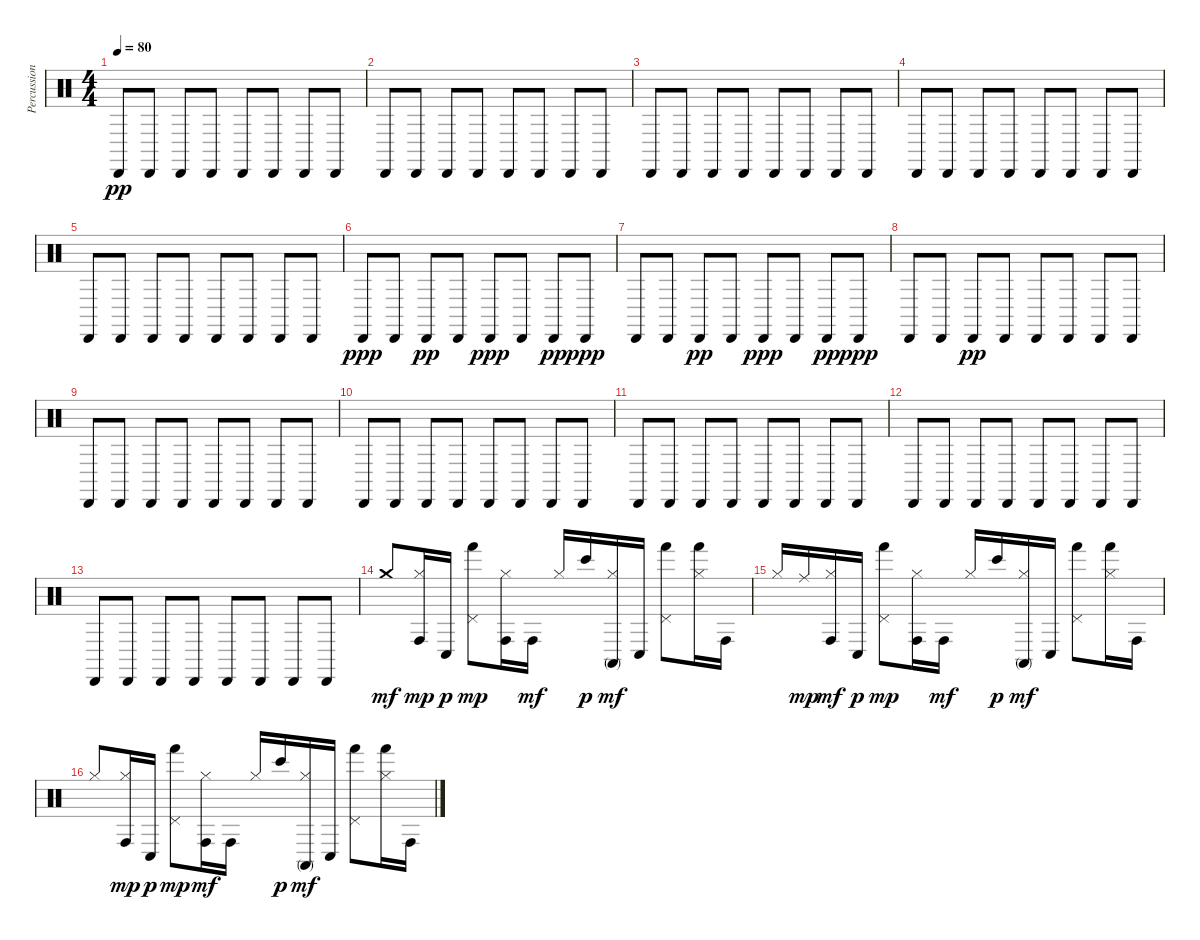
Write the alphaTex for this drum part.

\track ("Percussion" "Percussion") {instrument percussion}
\staff {score}
\articulation defaults
\ts (4 4)
\tempo 80
\clef neutral
\ks c "Cabasa (hit)".8{dy pp} "Cabasa (hit)".8 "Cabasa (hit)".8 "Cabasa (hit)".8 "Cabasa (hit)".8 "Cabasa (hit)".8 "Cabasa (hit)".8 "Cabasa (hit)".8
|
"Cabasa (hit)".8 "Cabasa (hit)".8 "Cabasa (hit)".8 "Cabasa (hit)".8 "Cabasa (hit)".8 "Cabasa (hit)".8 "Cabasa (hit)".8 "Cabasa (hit)".8 |
"Cabasa (hit)".8 "Cabasa (hit)".8 "Cabasa (hit)".8 "Cabasa (hit)".8 "Cabasa (hit)".8 "Cabasa (hit)".8 "Cabasa (hit)".8 "Cabasa (hit)".8 |
"Cabasa (hit)".8 "Cabasa (hit)".8 "Cabasa (hit)".8 "Cabasa (hit)".8 "Cabasa (hit)".8 "Cabasa (hit)".8 "Cabasa (hit)".8 "Cabasa (hit)".8 |
"Cabasa (hit)".8 "Cabasa (hit)".8 "Cabasa (hit)".8 "Cabasa (hit)".8 "Cabasa (hit)".8 "Cabasa (hit)".8 "Cabasa (hit)".8 "Cabasa (hit)".8 |
"Cabasa (hit)".8{dy ppp} "Cabasa (hit)".8 "Cabasa (hit)".8{dy pp} "Cabasa (hit)".8 "Cabasa (hit)".8{dy ppp} "Cabasa (hit)".8 "Cabasa (hit)".8{dy pp} "Cabasa (hit)".8{dy ppp} |
"Cabasa (hit)".8 "Cabasa (hit)".8 "Cabasa (hit)".8{dy pp} "Cabasa (hit)".8 "Cabasa (hit)".8{dy ppp} "Cabasa (hit)".8 "Cabasa (hit)".8{dy pp} "Cabasa (hit)".8{dy ppp} |
"Cabasa (hit)".8 "Cabasa (hit)".8 "Cabasa (hit)".8{dy pp} "Cabasa (hit)".8 "Cabasa (hit)".8 "Cabasa (hit)".8 "Cabasa (hit)".8 "Cabasa (hit)".8 |
"Cabasa (hit)".8 "Cabasa (hit)".8 "Cabasa (hit)".8 "Cabasa (hit)".8 "Cabasa (hit)".8 "Cabasa (hit)".8 "Cabasa (hit)".8 "Cabasa (hit)".8 |
"Cabasa (hit)".8 "Cabasa (hit)".8 "Cabasa (hit)".8 "Cabasa (hit)".8 "Cabasa (hit)".8 "Cabasa (hit)".8 "Cabasa (hit)".8 "Cabasa (hit)".8 |
"Cabasa (hit)".8 "Cabasa (hit)".8 "Cabasa (hit)".8 "Cabasa (hit)".8 "Cabasa (hit)".8 "Cabasa (hit)".8 "Cabasa (hit)".8 "Cabasa (hit)".8 |
"Cabasa (hit)".8 "Cabasa (hit)".8 "Cabasa (hit)".8 "Cabasa (hit)".8 "Cabasa (hit)".8 "Cabasa (hit)".8 "Cabasa (hit)".8 "Cabasa (hit)".8 |
"Cabasa (hit)".8 "Cabasa (hit)".8 "Cabasa (hit)".8 "Cabasa (hit)".8 "Cabasa (hit)".8 "Cabasa (hit)".8 "Cabasa (hit)".8 "Cabasa (hit)".8 |
"Crash medium (hit)".8{dy mf} ("Conga high (hit)" "Hi-Hat (closed)").16{dy mp} "Conga low (hit)".16{dy p} ("Hand (hit)" "Pedal Hi-Hat (hit)").8{dy mp} ("Conga high (hit)" "Hi-Hat (closed)").16 "Conga high (hit)".16{dy mf} "Hi-Hat (closed)".16 "Bongo High (hit)".16{dy p} ("Hi-Hat (closed)" "Conga high (mute)").16{dy mf} "Conga low (hit)".16 ("Pedal Hi-Hat (hit)" "Hand (hit)").8 ("Hand (hit)" "Hi-Hat (closed)").16 "Conga high (hit)".16 |
"Hi-Hat (closed)".16 "Ride (middle)".16{dy mp} ("Hi-Hat (closed)" "Conga high (hit)").16{dy mf} "Conga low (hit)".16{dy p} ("Pedal Hi-Hat (hit)" "Hand (hit)").8{dy mp} ("Conga high (hit)" "Hi-Hat (closed)").16 "Conga high (hit)".16{dy mf} "Hi-Hat (closed)".16 "Bongo High (hit)".16{dy p} ("Hi-Hat (closed)" "Conga high (mute)").16{dy mf} "Conga low (hit)".16 ("Hand (hit)" "Pedal Hi-Hat (hit)").8 ("Hi-Hat (closed)" "Hand (hit)").16 "Conga high (hit)".16 |
"Hi-Hat (closed)".8 ("Conga high (hit)" "Hi-Hat (closed)").16{dy mp} "Conga low (hit)".16{dy p} ("Pedal Hi-Hat (hit)" "Hand (hit)").8{dy mp} ("Hi-Hat (closed)" "Conga high (hit)").16{dy mf} "Conga high (hit)".16 "Hi-Hat (closed)".16 "Bongo High (hit)".16{dy p} ("Hi-Hat (closed)" "Conga high (mute)").16{dy mf} "Conga low (hit)".16 ("Hand (hit)" "Pedal Hi-Hat (hit)").8 ("Hi-Hat (closed)" "Hand (hit)").16 "Conga high (hit)".16
